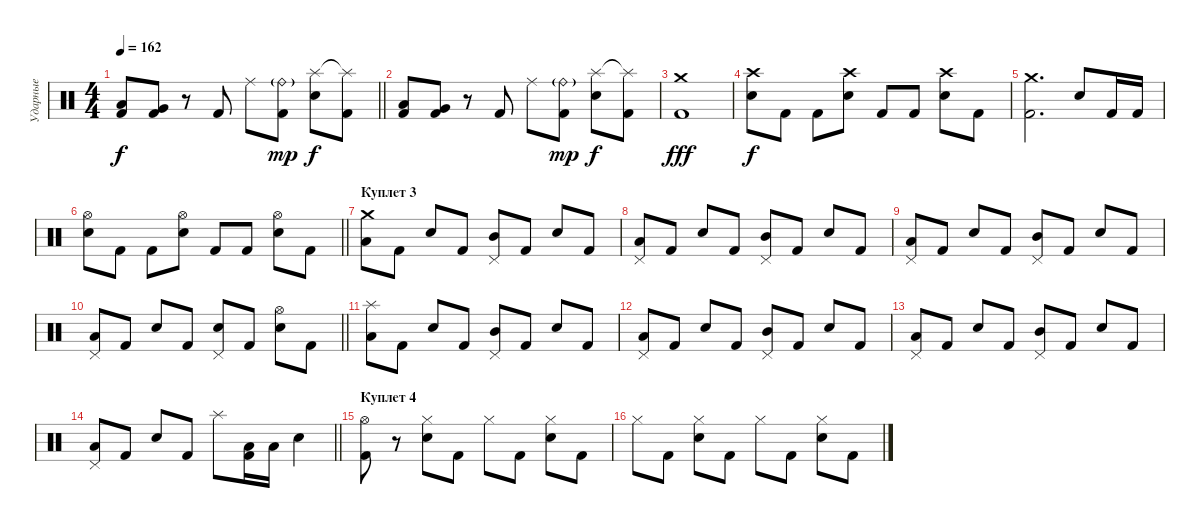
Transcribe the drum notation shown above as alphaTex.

\track ("Ударные" "Ударные") {instrument percussion}
\staff {score}
\articulation defaults
\ts (4 4)
\tempo 162
\clef neutral
\barLineRight lightlight
\ks c
("Low Floor Tom (hit)" "Kick (hit) 2").8{dy f} ("Very Low Tom (hit)" "Kick (hit) 2").8 r.8 "Kick (hit) 2".8 "Ride (middle)".8 ("Ride (bell)"{g} "Kick (hit) 2").8{dy mp} ("Splash (hit)" "Snare (hit) 2").8{dy f} ("Splash (hit)"{t} "Kick (hit) 2").8 |
("Low Floor Tom (hit)" "Kick (hit) 2").8 ("Very Low Tom (hit)" "Kick (hit) 2").8 r.8 "Kick (hit) 2".8 "Ride (middle)".8 ("Ride (bell)"{g} "Kick (hit) 2").8{dy mp} ("Splash (hit)" "Snare (hit) 2").8{dy f} ("Splash (hit)"{t} "Kick (hit) 2").8 |
("Crash medium (hit)" "Kick (hit) 2").1{dy fff} |
("Crash high (hit)" "Snare (hit) 2").8{dy f} "Kick (hit) 2".8 "Kick (hit) 2".8 ("Crash high (hit)" "Snare (hit) 2").8 "Kick (hit) 2".8 "Kick (hit) 2".8 ("Crash high (hit)" "Snare (hit) 2").8 "Kick (hit) 2".8 |
("Crash medium (hit)" "Kick (hit) 2").2{d} "Snare (hit) 2".8 "Kick (hit) 2".16 "Kick (hit) 2".16 |
\barLineRight lightlight
("Hi-Hat (open)" "Snare (hit) 2").8 "Kick (hit) 2".8 "Kick (hit) 2".8 ("Hi-Hat (open)" "Snare (hit) 2").8 "Kick (hit) 2".8 "Kick (hit) 2".8 ("Hi-Hat (open)" "Snare (hit) 2").8 "Kick (hit) 2".8 |
\section ("" "Куплет 3")
("Crash medium (hit)" "Low Tom (hit)").8 "Kick (hit) 2".8 "Snare (hit) 2".8 "Kick (hit) 2".8 ("Pedal Hi-Hat (hit)" "Mid Tom (hit)").8 "Kick (hit) 2".8 "Snare (hit) 2".8 "Kick (hit) 2".8 |
("Pedal Hi-Hat (hit)" "Low Tom (hit)").8 "Kick (hit) 2".8 "Snare (hit) 2".8 "Kick (hit) 2".8 ("Pedal Hi-Hat (hit)" "Mid Tom (hit)").8 "Kick (hit) 2".8 "Snare (hit) 2".8 "Kick (hit) 2".8 |
("Pedal Hi-Hat (hit)" "Low Tom (hit)").8 "Kick (hit) 2".8 "Snare (hit) 2".8 "Kick (hit) 2".8 ("Pedal Hi-Hat (hit)" "Mid Tom (hit)").8 "Kick (hit) 2".8 "Snare (hit) 2".8 "Kick (hit) 2".8 |
\barLineRight lightlight
("Pedal Hi-Hat (hit)" "Low Tom (hit)").8 "Kick (hit) 2".8 "Snare (hit) 2".8 "Kick (hit) 2".8 ("Pedal Hi-Hat (hit)" "Snare (hit) 2").8 "Kick (hit) 2".8 ("Hi-Hat (open)" "Snare (hit) 2").8 "Kick (hit) 2".8 |
("Splash (hit)" "Low Tom (hit)").8 "Kick (hit) 2".8 "Snare (hit) 2".8 "Kick (hit) 2".8 ("Pedal Hi-Hat (hit)" "Mid Tom (hit)").8 "Kick (hit) 2".8 "Snare (hit) 2".8 "Kick (hit) 2".8 |
("Pedal Hi-Hat (hit)" "Low Tom (hit)").8 "Kick (hit) 2".8 "Snare (hit) 2".8 "Kick (hit) 2".8 ("Pedal Hi-Hat (hit)" "Mid Tom (hit)").8 "Kick (hit) 2".8 "Snare (hit) 2".8 "Kick (hit) 2".8 |
("Pedal Hi-Hat (hit)" "Low Tom (hit)").8 "Kick (hit) 2".8 "Snare (hit) 2".8 "Kick (hit) 2".8 ("Pedal Hi-Hat (hit)" "Mid Tom (hit)").8 "Kick (hit) 2".8 "Snare (hit) 2".8 "Kick (hit) 2".8 |
\barLineRight lightlight
("Pedal Hi-Hat (hit)" "Low Tom (hit)").8 "Kick (hit) 2".8 "Snare (hit) 2".8 "Kick (hit) 2".8 "Splash (hit)".8 ("Low Tom (hit)" "Kick (hit) 2").16 "Low Tom (hit)".16 "Snare (hit) 2".4 |
\section ("" "Куплет 4")
("Hi-Hat (open)" "Kick (hit) 2").8 r.8 ("Hi-Hat (closed)" "Snare (hit) 2").8 "Kick (hit) 2".8 "Hi-Hat (closed)".8 "Kick (hit) 2".8 ("Hi-Hat (closed)" "Snare (hit) 2").8 "Kick (hit) 2".8 |
"Hi-Hat (closed)".8 "Kick (hit) 2".8 ("Hi-Hat (closed)" "Snare (hit) 2").8 "Kick (hit) 2".8 "Hi-Hat (closed)".8 "Kick (hit) 2".8 ("Hi-Hat (closed)" "Snare (hit) 2").8 "Kick (hit) 2".8
